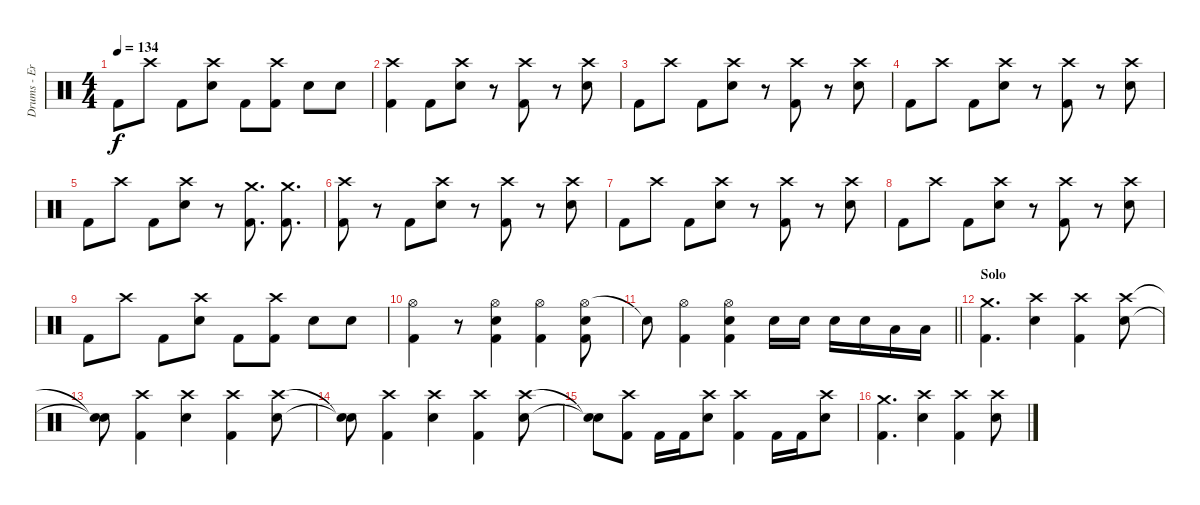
\track ("Drums - Eric Young" "Drums - Er") {instrument percussion}
\staff {score}
\articulation defaults
\ts (4 4)
\tempo 134
\clef neutral
\ks c "Kick (hit) 2".8{dy f} "Crash high (hit)".8 "Kick (hit) 2".8
("Crash high (hit)" "Electric Snare (hit)").8 "Kick (hit) 2".8 ("Crash high (hit)" "Kick (hit) 2").8 "Electric Snare (hit)".8 "Electric Snare (hit)".8 |
("Crash high (hit)" "Kick (hit) 2").4 "Kick (hit) 2".8 ("Crash high (hit)" "Electric Snare (hit)").8 r.8 ("Crash high (hit)" "Kick (hit) 2").8 r.8 ("Crash high (hit)" "Electric Snare (hit)").8 |
"Kick (hit) 2".8 "Crash high (hit)".8 "Kick (hit) 2".8 ("Crash high (hit)" "Electric Snare (hit)").8 r.8 ("Crash high (hit)" "Kick (hit) 2").8 r.8 ("Crash high (hit)" "Electric Snare (hit)").8 |
"Kick (hit) 2".8 "Crash high (hit)".8 "Kick (hit) 2".8 ("Crash high (hit)" "Electric Snare (hit)").8 r.8 ("Crash high (hit)" "Kick (hit) 2").8 r.8 ("Crash high (hit)" "Electric Snare (hit)").8 |
"Kick (hit) 2".8 "Crash high (hit)".8 "Kick (hit) 2".8 ("Crash high (hit)" "Electric Snare (hit)").8 r.8 ("Crash medium (hit)" "Kick (hit) 2").8{d} ("Crash medium (hit)" "Kick (hit) 2").8{d} |
("Crash high (hit)" "Kick (hit) 2").8 r.8 "Kick (hit) 2".8 ("Crash high (hit)" "Electric Snare (hit)").8 r.8 ("Crash high (hit)" "Kick (hit) 2").8 r.8 ("Crash high (hit)" "Electric Snare (hit)").8 |
"Kick (hit) 2".8 "Crash high (hit)".8 "Kick (hit) 2".8 ("Crash high (hit)" "Electric Snare (hit)").8 r.8 ("Crash high (hit)" "Kick (hit) 2").8 r.8 ("Crash high (hit)" "Electric Snare (hit)").8 |
"Kick (hit) 2".8 "Crash high (hit)".8 "Kick (hit) 2".8 ("Crash high (hit)" "Electric Snare (hit)").8 r.8 ("Crash high (hit)" "Kick (hit) 2").8 r.8 ("Crash high (hit)" "Electric Snare (hit)").8 |
"Kick (hit) 2".8 "Crash high (hit)".8 "Kick (hit) 2".8 ("Crash high (hit)" "Electric Snare (hit)").8 "Kick (hit) 2".8 ("Crash high (hit)" "Kick (hit) 2").8 "Electric Snare (hit)".8 "Electric Snare (hit)".8 |
("Hi-Hat (open)" "Kick (hit) 2").4 r.8 ("Hi-Hat (open)" "Electric Snare (hit)" "Kick (hit) 2").4 ("Hi-Hat (open)" "Kick (hit) 2").4 ("Hi-Hat (open)" "Electric Snare (hit)" "Kick (hit) 2").8 |
\barLineRight lightlight "Snare (hit)"{t}.8
("Hi-Hat (open)" "Kick (hit) 2").4 ("Hi-Hat (open)" "Electric Snare (hit)" "Kick (hit) 2").4 "Electric Snare (hit)".16 "Electric Snare (hit)".16 "Electric Snare (hit)".16 "Electric Snare (hit)".16 "Low Tom (hit)".16 "Low Tom (hit)".16 |
\section ("" "Solo")
("Crash medium (hit)" "Kick (hit) 2").4{d} ("Crash high (hit)" "Electric Snare (hit)").4 ("Crash high (hit)" "Kick (hit) 2").4 ("Crash high (hit)" "Electric Snare (hit)").8 |
("Snare (hit)"{t} "Snare (hit)"{t}).8 ("Crash high (hit)" "Kick (hit) 2").4 ("Crash high (hit)" "Electric Snare (hit)").4 ("Crash high (hit)" "Kick (hit) 2").4 ("Crash high (hit)" "Electric Snare (hit)").8 |
("Snare (hit)"{t} "Snare (hit)"{t}).8 ("Crash high (hit)" "Kick (hit) 2").4 ("Crash high (hit)" "Electric Snare (hit)").4 ("Crash high (hit)" "Kick (hit) 2").4 ("Crash high (hit)" "Electric Snare (hit)").8 |
("Snare (hit)"{t} "Snare (hit)"{t}).8 ("Crash high (hit)" "Kick (hit) 2").8 "Kick (hit) 2".16 "Kick (hit) 2".16 ("Crash high (hit)" "Electric Snare (hit)").8 ("Crash high (hit)" "Kick (hit) 2").4 "Kick (hit) 2".16 "Kick (hit) 2".16 ("Crash high (hit)" "Electric Snare (hit)").8 |
("Crash medium (hit)" "Kick (hit) 2").4{d} ("Crash high (hit)" "Electric Snare (hit)").4 ("Crash high (hit)" "Kick (hit) 2").4 ("Crash high (hit)" "Electric Snare (hit)").8
